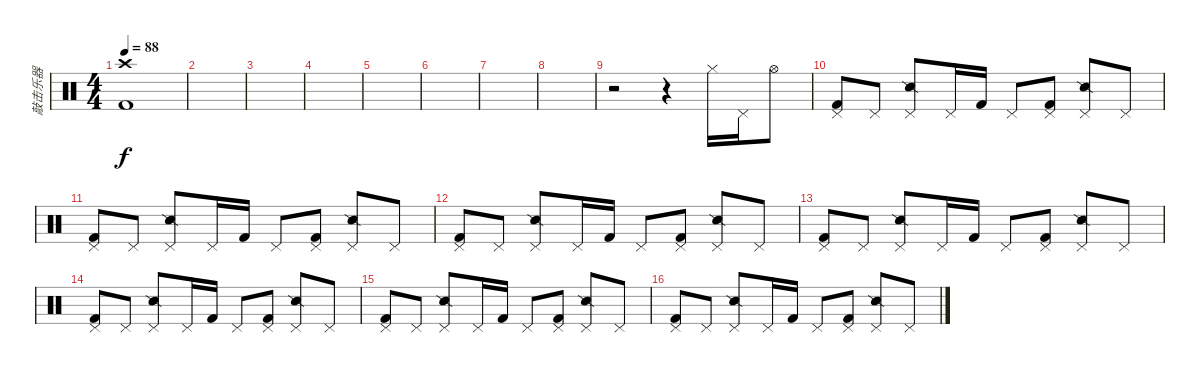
\track ("敲击乐器" "敲击乐器") {instrument percussion}
\staff {score}
\articulation defaults
\ts (4 4)
\tempo 88
\clef neutral
\ks c
("Crash high (hit)" "Kick (hit) 2").1{dy f} |
|
|
|
|
|
|
|
r.2 r.4 "Hi-Hat (closed)".16 "Pedal Hi-Hat (hit)".16 "Hi-Hat (open)".8 |
("Pedal Hi-Hat (hit)" "Kick (hit) 2").8 "Pedal Hi-Hat (hit)".8 ("Pedal Hi-Hat (hit)" "Snare (side stick) 2").8 "Pedal Hi-Hat (hit)".16 "Kick (hit) 2".16 "Pedal Hi-Hat (hit)".8 ("Pedal Hi-Hat (hit)" "Kick (hit) 2").8 ("Pedal Hi-Hat (hit)" "Snare (side stick) 2").8 "Pedal Hi-Hat (hit)".8 |
("Pedal Hi-Hat (hit)" "Kick (hit) 2").8 "Pedal Hi-Hat (hit)".8 ("Pedal Hi-Hat (hit)" "Snare (side stick) 2").8 "Pedal Hi-Hat (hit)".16 "Kick (hit) 2".16 "Pedal Hi-Hat (hit)".8 ("Pedal Hi-Hat (hit)" "Kick (hit) 2").8 ("Pedal Hi-Hat (hit)" "Snare (side stick) 2").8 "Pedal Hi-Hat (hit)".8 |
("Pedal Hi-Hat (hit)" "Kick (hit) 2").8 "Pedal Hi-Hat (hit)".8 ("Pedal Hi-Hat (hit)" "Snare (side stick) 2").8 "Pedal Hi-Hat (hit)".16 "Kick (hit) 2".16 "Pedal Hi-Hat (hit)".8 ("Pedal Hi-Hat (hit)" "Kick (hit) 2").8 ("Pedal Hi-Hat (hit)" "Snare (side stick) 2").8 "Pedal Hi-Hat (hit)".8 |
("Pedal Hi-Hat (hit)" "Kick (hit) 2").8 "Pedal Hi-Hat (hit)".8 ("Pedal Hi-Hat (hit)" "Snare (side stick) 2").8 "Pedal Hi-Hat (hit)".16 "Kick (hit) 2".16 "Pedal Hi-Hat (hit)".8 ("Pedal Hi-Hat (hit)" "Kick (hit) 2").8 ("Pedal Hi-Hat (hit)" "Snare (side stick) 2").8 "Pedal Hi-Hat (hit)".8 |
("Pedal Hi-Hat (hit)" "Kick (hit) 2").8 "Pedal Hi-Hat (hit)".8 ("Pedal Hi-Hat (hit)" "Snare (side stick) 2").8 "Pedal Hi-Hat (hit)".16 "Kick (hit) 2".16 "Pedal Hi-Hat (hit)".8 ("Pedal Hi-Hat (hit)" "Kick (hit) 2").8 ("Pedal Hi-Hat (hit)" "Snare (side stick) 2").8 "Pedal Hi-Hat (hit)".8 |
("Pedal Hi-Hat (hit)" "Kick (hit) 2").8 "Pedal Hi-Hat (hit)".8 ("Pedal Hi-Hat (hit)" "Snare (side stick) 2").8 "Pedal Hi-Hat (hit)".16 "Kick (hit) 2".16 "Pedal Hi-Hat (hit)".8 ("Pedal Hi-Hat (hit)" "Kick (hit) 2").8 ("Pedal Hi-Hat (hit)" "Snare (side stick) 2").8 "Pedal Hi-Hat (hit)".8 |
("Pedal Hi-Hat (hit)" "Kick (hit) 2").8 "Pedal Hi-Hat (hit)".8 ("Pedal Hi-Hat (hit)" "Snare (side stick) 2").8 "Pedal Hi-Hat (hit)".16 "Kick (hit) 2".16 "Pedal Hi-Hat (hit)".8 ("Pedal Hi-Hat (hit)" "Kick (hit) 2").8 ("Pedal Hi-Hat (hit)" "Snare (side stick) 2").8 "Pedal Hi-Hat (hit)".8
